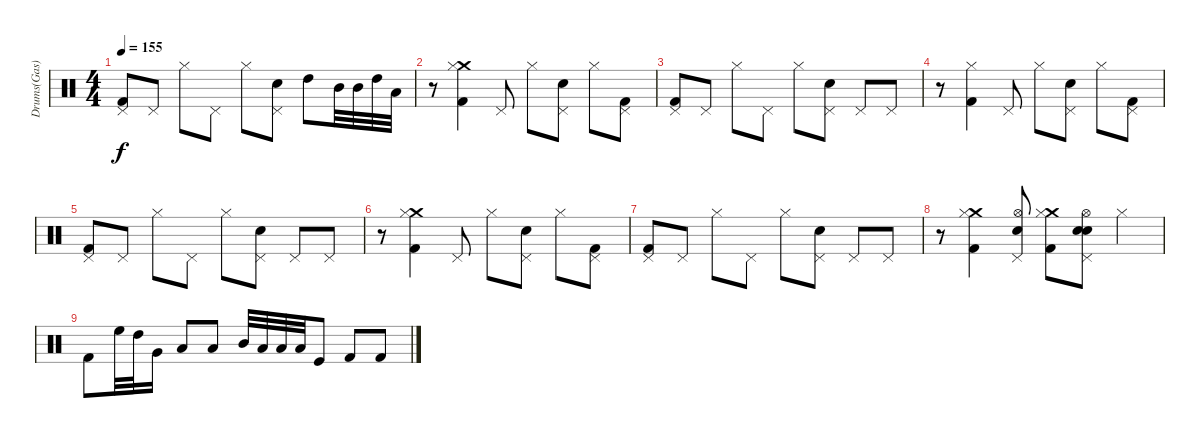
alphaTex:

\track ("Drums(Gas)" "Drums(Gas)") {instrument percussion}
\staff {score}
\articulation defaults
\ts (4 4)
\tempo 155
\clef neutral
\ks c
("Kick (hit) 2" "Pedal Hi-Hat (hit)").8{dy f} "Pedal Hi-Hat (hit)".8 "Hi-Hat (closed)".8 "Pedal Hi-Hat (hit)".8 "Hi-Hat (closed)".8 ("Electric Snare (hit)" "Pedal Hi-Hat (hit)").8 "High Tom (hit)".8 "Mid Tom (hit)".32 "Mid Tom (hit)".32 "High Tom (hit)".32 "Low Tom (hit)".32 |
r.8 ("Crash medium (hit)" "Kick (hit) 2" "Hi-Hat (closed)").4 "Pedal Hi-Hat (hit)".8 "Hi-Hat (closed)".8 ("Electric Snare (hit)" "Pedal Hi-Hat (hit)").8 "Hi-Hat (closed)".8 ("Kick (hit) 2" "Pedal Hi-Hat (hit)").8 |
("Kick (hit) 2" "Pedal Hi-Hat (hit)").8 "Pedal Hi-Hat (hit)".8 "Hi-Hat (closed)".8 "Pedal Hi-Hat (hit)".8 "Hi-Hat (closed)".8 ("Electric Snare (hit)" "Pedal Hi-Hat (hit)").8 "Pedal Hi-Hat (hit)".8 "Pedal Hi-Hat (hit)".8 |
r.8 ("Kick (hit) 2" "Hi-Hat (closed)").4 "Pedal Hi-Hat (hit)".8 "Hi-Hat (closed)".8 ("Electric Snare (hit)" "Pedal Hi-Hat (hit)").8 "Hi-Hat (closed)".8 ("Kick (hit) 2" "Pedal Hi-Hat (hit)").8 |
("Kick (hit) 2" "Pedal Hi-Hat (hit)").8 "Pedal Hi-Hat (hit)".8 "Hi-Hat (closed)".8 "Pedal Hi-Hat (hit)".8 "Hi-Hat (closed)".8 ("Electric Snare (hit)" "Pedal Hi-Hat (hit)").8 "Pedal Hi-Hat (hit)".8 "Pedal Hi-Hat (hit)".8 |
r.8 ("Crash medium (hit)" "Kick (hit) 2" "Hi-Hat (closed)").4 "Pedal Hi-Hat (hit)".8 "Hi-Hat (closed)".8 ("Electric Snare (hit)" "Pedal Hi-Hat (hit)").8 "Hi-Hat (closed)".8 ("Kick (hit) 2" "Pedal Hi-Hat (hit)").8 |
("Kick (hit) 2" "Pedal Hi-Hat (hit)").8 "Pedal Hi-Hat (hit)".8 "Hi-Hat (closed)".8 "Pedal Hi-Hat (hit)".8 "Hi-Hat (closed)".8 ("Electric Snare (hit)" "Pedal Hi-Hat (hit)").8 "Pedal Hi-Hat (hit)".8 "Pedal Hi-Hat (hit)".8 |
r.8 ("Crash medium (hit)" "Kick (hit) 2" "Hi-Hat (closed)").4 ("Hi-Hat (open)" "Snare (hit) 2" "Pedal Hi-Hat (hit)").8 ("Crash medium (hit)" "Kick (hit) 2" "Hi-Hat (closed)").8 ("Hi-Hat (open)" "Snare (hit) 2" "Electric Snare (hit)" "Pedal Hi-Hat (hit)").8 "Hi-Hat (closed)".4 |
"Kick (hit) 2".8 "High Floor Tom (hit)".32 "High Tom (hit)".32 "Very Low Tom (hit)".16 "Low Tom (hit)".8 "Low Tom (hit)".8 "Mid Tom (hit)".32 "Low Tom (hit)".32 "Low Floor Tom (hit)".32 "Low Floor Tom (hit)".32 "Kick (hit)".8 "Kick (hit) 2".8 "Kick (hit) 2".8
